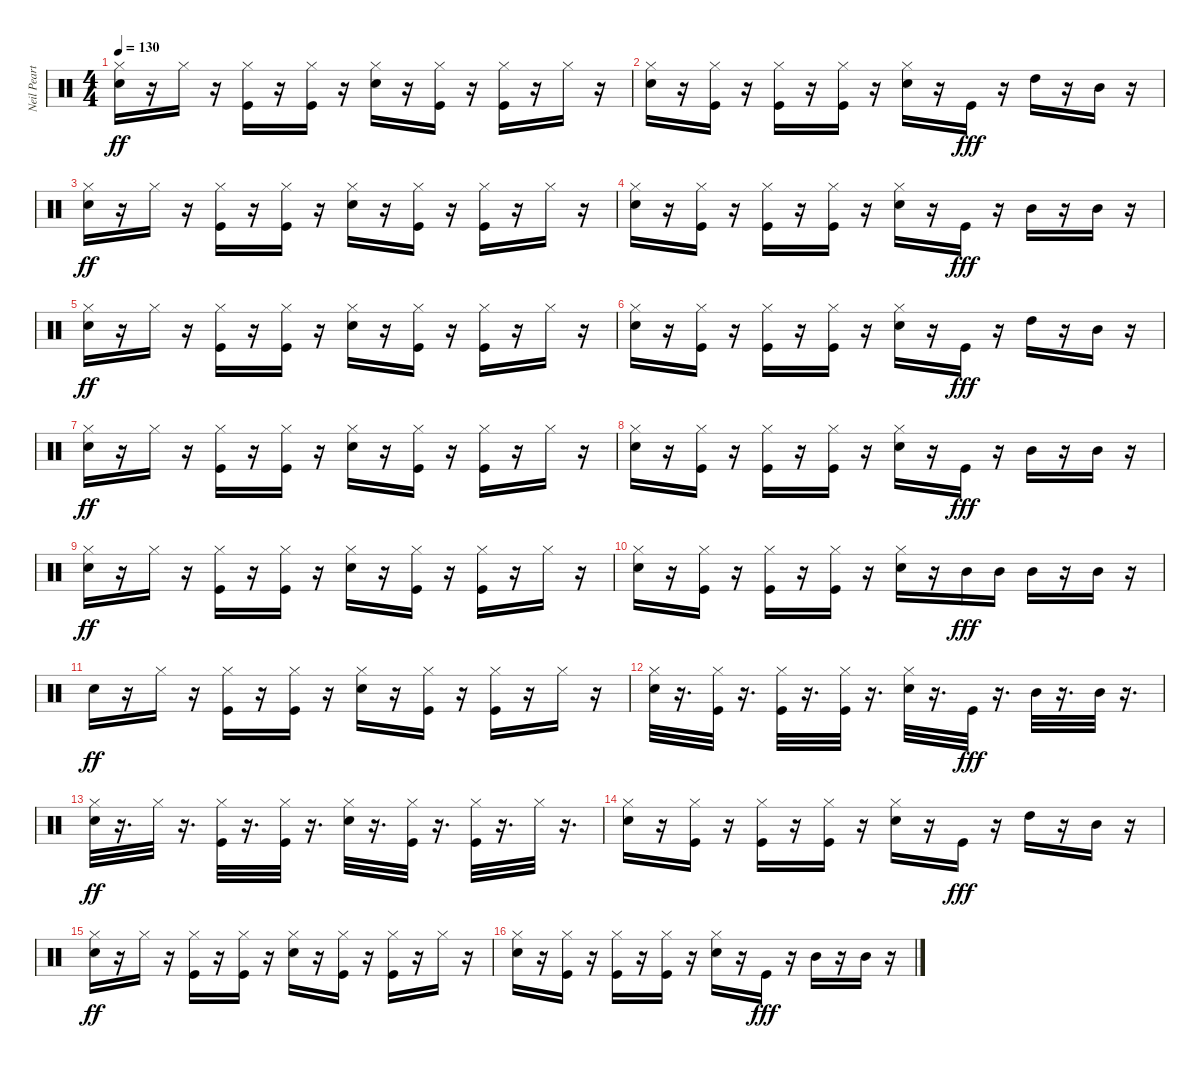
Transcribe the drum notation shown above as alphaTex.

\track ("Neil Peart" "Neil Peart") {instrument percussion}
\staff {score}
\articulation defaults
\ts (4 4)
\tempo 130
\clef neutral
\ks c
("Snare (hit) 2" "Hi-Hat (closed)").16{dy ff} r.16 "Hi-Hat (closed)".16 r.16 ("Kick (hit)" "Hi-Hat (closed)").16 r.16 ("Kick (hit)" "Hi-Hat (closed)").16 r.16 ("Snare (hit) 2" "Hi-Hat (closed)").16 r.16 ("Kick (hit)" "Hi-Hat (closed)").16 r.16 ("Kick (hit)" "Hi-Hat (closed)").16 r.16 "Hi-Hat (closed)".16 r.16 |
("Snare (hit) 2" "Hi-Hat (closed)").16 r.16 ("Kick (hit)" "Hi-Hat (closed)").16 r.16 ("Kick (hit)" "Hi-Hat (closed)").16 r.16 ("Kick (hit)" "Hi-Hat (closed)").16 r.16 ("Snare (hit) 2" "Hi-Hat (closed)").16 r.16 "Kick (hit)".16{dy fff} r.16 "High Tom (hit)".16 r.16 "Mid Tom (hit)".16 r.16 |
("Snare (hit) 2" "Hi-Hat (closed)").16{dy ff} r.16 "Hi-Hat (closed)".16 r.16 ("Kick (hit)" "Hi-Hat (closed)").16 r.16 ("Kick (hit)" "Hi-Hat (closed)").16 r.16 ("Snare (hit) 2" "Hi-Hat (closed)").16 r.16 ("Kick (hit)" "Hi-Hat (closed)").16 r.16 ("Kick (hit)" "Hi-Hat (closed)").16 r.16 "Hi-Hat (closed)".16 r.16 |
("Snare (hit) 2" "Hi-Hat (closed)").16 r.16 ("Kick (hit)" "Hi-Hat (closed)").16 r.16 ("Kick (hit)" "Hi-Hat (closed)").16 r.16 ("Kick (hit)" "Hi-Hat (closed)").16 r.16 ("Snare (hit) 2" "Hi-Hat (closed)").16 r.16 "Kick (hit)".16{dy fff} r.16 "Mid Tom (hit)".16 r.16 "Mid Tom (hit)".16 r.16 |
("Snare (hit) 2" "Hi-Hat (closed)").16{dy ff} r.16 "Hi-Hat (closed)".16 r.16 ("Kick (hit)" "Hi-Hat (closed)").16 r.16 ("Kick (hit)" "Hi-Hat (closed)").16 r.16 ("Snare (hit) 2" "Hi-Hat (closed)").16 r.16 ("Kick (hit)" "Hi-Hat (closed)").16 r.16 ("Kick (hit)" "Hi-Hat (closed)").16 r.16 "Hi-Hat (closed)".16 r.16 |
("Snare (hit) 2" "Hi-Hat (closed)").16 r.16 ("Kick (hit)" "Hi-Hat (closed)").16 r.16 ("Kick (hit)" "Hi-Hat (closed)").16 r.16 ("Kick (hit)" "Hi-Hat (closed)").16 r.16 ("Snare (hit) 2" "Hi-Hat (closed)").16 r.16 "Kick (hit)".16{dy fff} r.16 "High Tom (hit)".16 r.16 "Mid Tom (hit)".16 r.16 |
("Snare (hit) 2" "Hi-Hat (closed)").16{dy ff} r.16 "Hi-Hat (closed)".16 r.16 ("Kick (hit)" "Hi-Hat (closed)").16 r.16 ("Kick (hit)" "Hi-Hat (closed)").16 r.16 ("Snare (hit) 2" "Hi-Hat (closed)").16 r.16 ("Kick (hit)" "Hi-Hat (closed)").16 r.16 ("Kick (hit)" "Hi-Hat (closed)").16 r.16 "Hi-Hat (closed)".16 r.16 |
("Snare (hit) 2" "Hi-Hat (closed)").16 r.16 ("Kick (hit)" "Hi-Hat (closed)").16 r.16 ("Kick (hit)" "Hi-Hat (closed)").16 r.16 ("Kick (hit)" "Hi-Hat (closed)").16 r.16 ("Snare (hit) 2" "Hi-Hat (closed)").16 r.16 "Kick (hit)".16{dy fff} r.16 "Mid Tom (hit)".16 r.16 "Mid Tom (hit)".16 r.16 |
("Snare (hit) 2" "Hi-Hat (closed)").16{dy ff} r.16 "Hi-Hat (closed)".16 r.16 ("Kick (hit)" "Hi-Hat (closed)").16 r.16 ("Kick (hit)" "Hi-Hat (closed)").16 r.16 ("Snare (hit) 2" "Hi-Hat (closed)").16 r.16 ("Kick (hit)" "Hi-Hat (closed)").16 r.16 ("Kick (hit)" "Hi-Hat (closed)").16 r.16 "Hi-Hat (closed)".16 r.16 |
("Snare (hit) 2" "Hi-Hat (closed)").16 r.16 ("Kick (hit)" "Hi-Hat (closed)").16 r.16 ("Kick (hit)" "Hi-Hat (closed)").16 r.16 ("Kick (hit)" "Hi-Hat (closed)").16 r.16 ("Snare (hit) 2" "Hi-Hat (closed)").16 r.16 "Mid Tom (hit)".16{dy fff} "Mid Tom (hit)".16 "Mid Tom (hit)".16 r.16 "Mid Tom (hit)".16 r.16 |
"Snare (hit) 2".16{dy ff} r.16 "Hi-Hat (closed)".16 r.16 ("Kick (hit)" "Hi-Hat (closed)").16 r.16 ("Kick (hit)" "Hi-Hat (closed)").16 r.16 ("Snare (hit) 2" "Hi-Hat (closed)").16 r.16 ("Kick (hit)" "Hi-Hat (closed)").16 r.16 ("Kick (hit)" "Hi-Hat (closed)").16 r.16 "Hi-Hat (closed)".16 r.16 |
("Snare (hit) 2" "Hi-Hat (closed)").32 r.16{d} ("Kick (hit)" "Hi-Hat (closed)").32 r.16{d} ("Kick (hit)" "Hi-Hat (closed)").32 r.16{d} ("Kick (hit)" "Hi-Hat (closed)").32 r.16{d} ("Snare (hit) 2" "Hi-Hat (closed)").32 r.16{d} "Kick (hit)".32{dy fff} r.16{d} "Mid Tom (hit)".32 r.16{d} "Mid Tom (hit)".32 r.16{d} |
("Snare (hit) 2" "Hi-Hat (closed)").32{dy ff} r.16{d} "Hi-Hat (closed)".32 r.16{d} ("Kick (hit)" "Hi-Hat (closed)").32 r.16{d} ("Kick (hit)" "Hi-Hat (closed)").32 r.16{d} ("Snare (hit) 2" "Hi-Hat (closed)").32 r.16{d} ("Kick (hit)" "Hi-Hat (closed)").32 r.16{d} ("Kick (hit)" "Hi-Hat (closed)").32 r.16{d} "Hi-Hat (closed)".32 r.16{d} |
("Snare (hit) 2" "Hi-Hat (closed)").16 r.16 ("Kick (hit)" "Hi-Hat (closed)").16 r.16 ("Kick (hit)" "Hi-Hat (closed)").16 r.16 ("Kick (hit)" "Hi-Hat (closed)").16 r.16 ("Snare (hit) 2" "Hi-Hat (closed)").16 r.16 "Kick (hit)".16{dy fff} r.16 "High Tom (hit)".16 r.16 "Mid Tom (hit)".16 r.16 |
("Snare (hit) 2" "Hi-Hat (closed)").16{dy ff} r.16 "Hi-Hat (closed)".16 r.16 ("Kick (hit)" "Hi-Hat (closed)").16 r.16 ("Kick (hit)" "Hi-Hat (closed)").16 r.16 ("Snare (hit) 2" "Hi-Hat (closed)").16 r.16 ("Kick (hit)" "Hi-Hat (closed)").16 r.16 ("Kick (hit)" "Hi-Hat (closed)").16 r.16 "Hi-Hat (closed)".16 r.16 |
("Snare (hit) 2" "Hi-Hat (closed)").16 r.16 ("Kick (hit)" "Hi-Hat (closed)").16 r.16 ("Kick (hit)" "Hi-Hat (closed)").16 r.16 ("Kick (hit)" "Hi-Hat (closed)").16 r.16 ("Snare (hit) 2" "Hi-Hat (closed)").16 r.16 "Kick (hit)".16{dy fff} r.16 "Mid Tom (hit)".16 r.16 "Mid Tom (hit)".16 r.16
